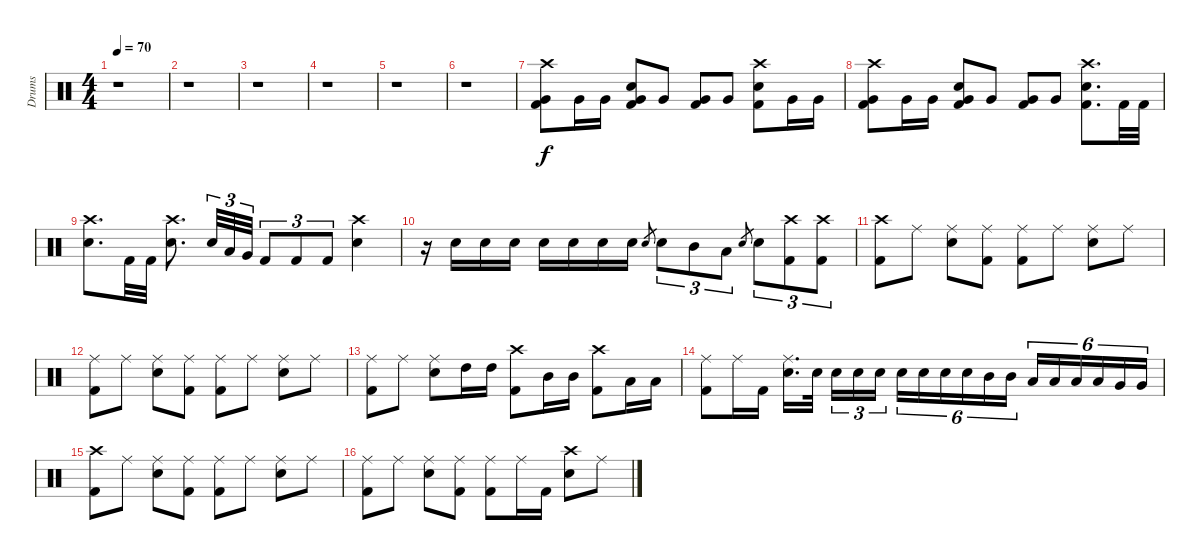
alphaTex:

\track ("Drums" "Drums") {instrument percussion}
\staff {score}
\articulation defaults
\ts (4 4)
\tempo 70
\clef neutral
\ks c
r.1{dy f} |
r.1 |
r.1 |
r.1 |
r.1 |
r.1 |
("Crash high (hit)" "Very Low Tom (hit)" "Kick (hit) 2").8 "Very Low Tom (hit)".16 "Very Low Tom (hit)".16 ("Electric Snare (hit)" "Very Low Tom (hit)" "Kick (hit) 2").8 "Very Low Tom (hit)".8 ("Very Low Tom (hit)" "Kick (hit) 2").8 "Very Low Tom (hit)".8 ("Crash high (hit)" "Electric Snare (hit)" "Kick (hit) 2").8 "Very Low Tom (hit)".16 "Very Low Tom (hit)".16 |
("Crash high (hit)" "Very Low Tom (hit)" "Kick (hit) 2").8 "Very Low Tom (hit)".16 "Very Low Tom (hit)".16 ("Electric Snare (hit)" "Very Low Tom (hit)" "Kick (hit) 2").8 "Very Low Tom (hit)".8 ("Very Low Tom (hit)" "Kick (hit) 2").8 "Very Low Tom (hit)".8 ("Crash high (hit)" "Electric Snare (hit)" "Kick (hit) 2").8{d} "Kick (hit) 2".32 "Kick (hit) 2".32 |
("Crash high (hit)" "Electric Snare (hit)").8{d} "Kick (hit) 2".32 "Kick (hit) 2".32 ("Crash high (hit)" "Electric Snare (hit)").8{d} "Electric Snare (hit)".32{tu (3 2)} "Low Tom (hit)".32{tu (3 2)} "Very Low Tom (hit)".32{tu (3 2)} "Kick (hit) 2".8{tu (3 2)} "Kick (hit) 2".8{tu (3 2)} "Kick (hit) 2".8{tu (3 2)} ("Crash high (hit)" "Electric Snare (hit)").4 |
r.16 "Electric Snare (hit)".16 "Electric Snare (hit)".16 "Electric Snare (hit)".16 "Electric Snare (hit)".16 "Electric Snare (hit)".16 "Electric Snare (hit)".16 "Electric Snare (hit)".16 "Electric Snare (hit)".8{gr} "Electric Snare (hit)".8{tu (3 2)} "Mid Tom (hit)".8{tu (3 2)} "Low Tom (hit)".8{tu (3 2)} "Electric Snare (hit)".8{gr} "Electric Snare (hit)".8{tu (3 2)} ("Crash high (hit)" "Kick (hit) 2").8{tu (3 2)} ("Crash high (hit)" "Kick (hit) 2").8{tu (3 2)} |
("Crash high (hit)" "Kick (hit) 2").8 "Ride (middle)".8 ("Ride (middle)" "Electric Snare (hit)").8 ("Ride (middle)" "Kick (hit) 2").8 ("Ride (middle)" "Kick (hit) 2").8 "Ride (middle)".8 ("Ride (middle)" "Electric Snare (hit)").8 "Ride (middle)".8 |
("Ride (middle)" "Kick (hit) 2").8 "Ride (middle)".8 ("Ride (middle)" "Electric Snare (hit)").8 ("Ride (middle)" "Kick (hit) 2").8 ("Ride (middle)" "Kick (hit) 2").8 "Ride (middle)".8 ("Ride (middle)" "Electric Snare (hit)").8 "Ride (middle)".8 |
("Ride (middle)" "Kick (hit) 2").8 "Ride (middle)".8 ("Ride (middle)" "Electric Snare (hit)").8 "High Tom (hit)".16 "High Tom (hit)".16 ("Crash high (hit)" "Kick (hit) 2").8 "Mid Tom (hit)".16 "Mid Tom (hit)".16 ("Crash high (hit)" "Kick (hit) 2").8 "Low Tom (hit)".16 "Low Tom (hit)".16 |
("Ride (middle)" "Kick (hit) 2").8 "Ride (middle)".16 "Kick (hit) 2".16 ("Ride (middle)" "Electric Snare (hit)").16{d} "Electric Snare (hit)".32 "Electric Snare (hit)".16{tu (3 2)} "Electric Snare (hit)".16{tu (3 2)} "Electric Snare (hit)".16{tu (3 2)} "Electric Snare (hit)".16{tu (6 4)} "Electric Snare (hit)".16{tu (6 4)} "Electric Snare (hit)".16{tu (6 4)} "Electric Snare (hit)".16{tu (6 4)} "Mid Tom (hit)".16{tu (6 4)} "Mid Tom (hit)".16{tu (6 4)} "Low Tom (hit)".16{tu (6 4)} "Low Tom (hit)".16{tu (6 4)} "Low Tom (hit)".16{tu (6 4)} "Low Tom (hit)".16{tu (6 4)} "Very Low Tom (hit)".16{tu (6 4)} "Very Low Tom (hit)".16{tu (6 4)} |
("Crash high (hit)" "Kick (hit) 2").8 "Ride (middle)".8 ("Ride (middle)" "Electric Snare (hit)").8 ("Ride (middle)" "Kick (hit) 2").8 ("Ride (middle)" "Kick (hit) 2").8 "Ride (middle)".8 ("Ride (middle)" "Electric Snare (hit)").8 "Ride (middle)".8 |
("Ride (middle)" "Kick (hit) 2").8 "Ride (middle)".8 ("Ride (middle)" "Electric Snare (hit)").8 ("Ride (middle)" "Kick (hit) 2").8 ("Ride (middle)" "Kick (hit) 2").8 "Ride (middle)".16 "Kick (hit) 2".16 ("Crash high (hit)" "Electric Snare (hit)").8 "Ride (middle)".8
